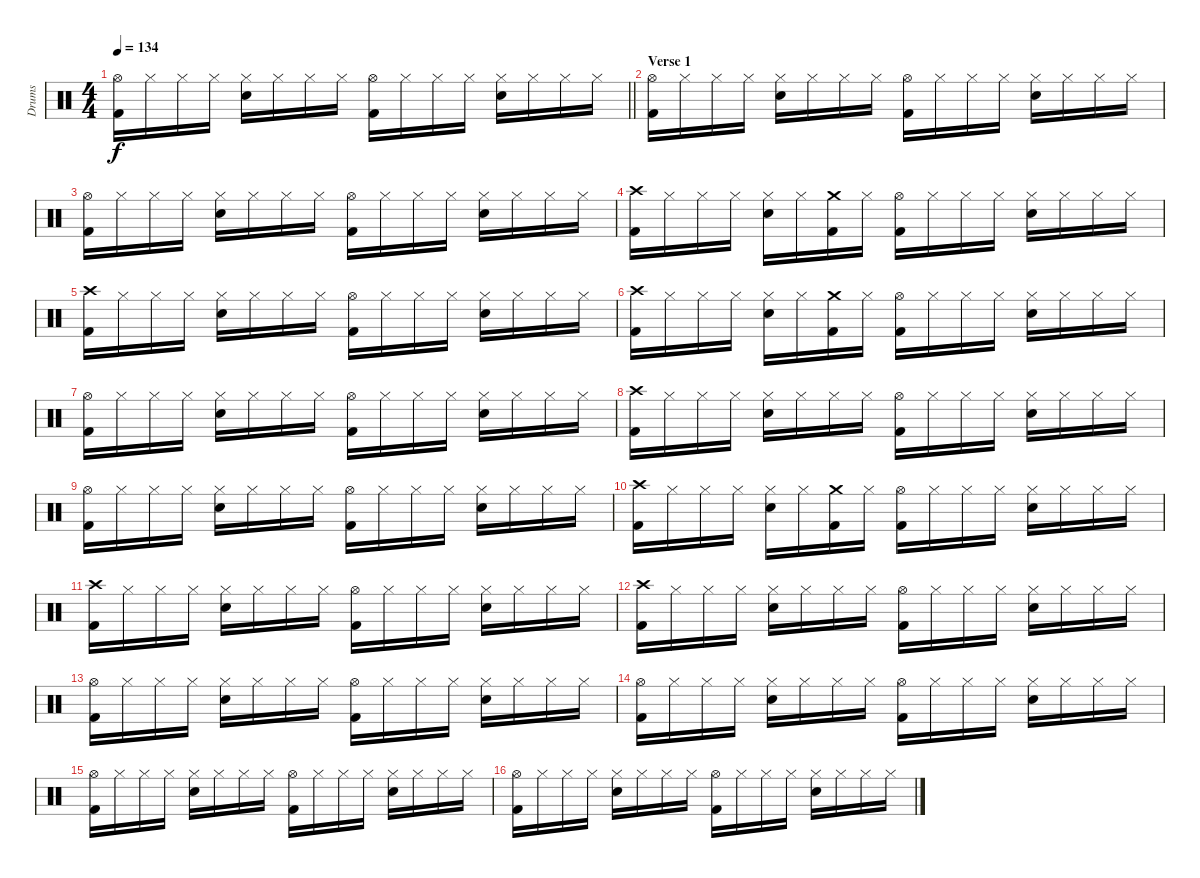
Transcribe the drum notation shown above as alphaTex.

\track ("Drums" "Drums") {instrument percussion}
\staff {score}
\articulation defaults
\ts (4 4)
\tempo 134
\clef neutral
\barLineRight lightlight
\ks c
("Hi-Hat (open)" "Kick (hit) 2").16{dy f} "Hi-Hat (closed)".16 "Hi-Hat (closed)".16 "Hi-Hat (closed)".16 ("Hi-Hat (closed)" "Snare (hit) 2").16 "Hi-Hat (closed)".16 "Hi-Hat (closed)".16 "Hi-Hat (closed)".16 ("Hi-Hat (open)" "Kick (hit) 2").16 "Hi-Hat (closed)".16 "Hi-Hat (closed)".16 "Hi-Hat (closed)".16 ("Hi-Hat (closed)" "Snare (hit) 2").16 "Hi-Hat (closed)".16 "Hi-Hat (closed)".16 "Hi-Hat (closed)".16 |
\section ("" "Verse 1")
("Hi-Hat (open)" "Kick (hit) 2").16 "Hi-Hat (closed)".16 "Hi-Hat (closed)".16 "Hi-Hat (closed)".16 ("Hi-Hat (closed)" "Snare (hit) 2").16 "Hi-Hat (closed)".16 "Hi-Hat (closed)".16 "Hi-Hat (closed)".16 ("Hi-Hat (open)" "Kick (hit) 2").16 "Hi-Hat (closed)".16 "Hi-Hat (closed)".16 "Hi-Hat (closed)".16 ("Hi-Hat (closed)" "Snare (hit) 2").16 "Hi-Hat (closed)".16 "Hi-Hat (closed)".16 "Hi-Hat (closed)".16 |
("Hi-Hat (open)" "Kick (hit) 2").16 "Hi-Hat (closed)".16 "Hi-Hat (closed)".16 "Hi-Hat (closed)".16 ("Hi-Hat (closed)" "Snare (hit) 2").16 "Hi-Hat (closed)".16 "Hi-Hat (closed)".16 "Hi-Hat (closed)".16 ("Hi-Hat (open)" "Kick (hit) 2").16 "Hi-Hat (closed)".16 "Hi-Hat (closed)".16 "Hi-Hat (closed)".16 ("Hi-Hat (closed)" "Snare (hit) 2").16 "Hi-Hat (closed)".16 "Hi-Hat (closed)".16 "Hi-Hat (closed)".16 |
("Crash high (hit)" "Kick (hit) 2").16 "Hi-Hat (closed)".16 "Hi-Hat (closed)".16 "Hi-Hat (closed)".16 ("Hi-Hat (closed)" "Snare (hit) 2").16 "Hi-Hat (closed)".16 ("Crash medium (hit)" "Kick (hit) 2").16 "Hi-Hat (closed)".16 ("Hi-Hat (open)" "Kick (hit) 2").16 "Hi-Hat (closed)".16 "Hi-Hat (closed)".16 "Hi-Hat (closed)".16 ("Hi-Hat (closed)" "Snare (hit) 2").16 "Hi-Hat (closed)".16 "Hi-Hat (closed)".16 "Hi-Hat (closed)".16 |
("Crash high (hit)" "Kick (hit) 2").16 "Hi-Hat (closed)".16 "Hi-Hat (closed)".16 "Hi-Hat (closed)".16 ("Hi-Hat (closed)" "Snare (hit) 2").16 "Hi-Hat (closed)".16 "Hi-Hat (closed)".16 "Hi-Hat (closed)".16 ("Hi-Hat (open)" "Kick (hit) 2").16 "Hi-Hat (closed)".16 "Hi-Hat (closed)".16 "Hi-Hat (closed)".16 ("Hi-Hat (closed)" "Snare (hit) 2").16 "Hi-Hat (closed)".16 "Hi-Hat (closed)".16 "Hi-Hat (closed)".16 |
("Crash high (hit)" "Kick (hit) 2").16 "Hi-Hat (closed)".16 "Hi-Hat (closed)".16 "Hi-Hat (closed)".16 ("Hi-Hat (closed)" "Snare (hit) 2").16 "Hi-Hat (closed)".16 ("Crash medium (hit)" "Kick (hit) 2").16 "Hi-Hat (closed)".16 ("Hi-Hat (open)" "Kick (hit) 2").16 "Hi-Hat (closed)".16 "Hi-Hat (closed)".16 "Hi-Hat (closed)".16 ("Hi-Hat (closed)" "Snare (hit) 2").16 "Hi-Hat (closed)".16 "Hi-Hat (closed)".16 "Hi-Hat (closed)".16 |
("Hi-Hat (open)" "Kick (hit) 2").16 "Hi-Hat (closed)".16 "Hi-Hat (closed)".16 "Hi-Hat (closed)".16 ("Hi-Hat (closed)" "Snare (hit) 2").16 "Hi-Hat (closed)".16 "Hi-Hat (closed)".16 "Hi-Hat (closed)".16 ("Hi-Hat (open)" "Kick (hit) 2").16 "Hi-Hat (closed)".16 "Hi-Hat (closed)".16 "Hi-Hat (closed)".16 ("Hi-Hat (closed)" "Snare (hit) 2").16 "Hi-Hat (closed)".16 "Hi-Hat (closed)".16 "Hi-Hat (closed)".16 |
("Crash high (hit)" "Kick (hit) 2").16 "Hi-Hat (closed)".16 "Hi-Hat (closed)".16 "Hi-Hat (closed)".16 ("Hi-Hat (closed)" "Snare (hit) 2").16 "Hi-Hat (closed)".16 "Hi-Hat (closed)".16 "Hi-Hat (closed)".16 ("Hi-Hat (open)" "Kick (hit) 2").16 "Hi-Hat (closed)".16 "Hi-Hat (closed)".16 "Hi-Hat (closed)".16 ("Hi-Hat (closed)" "Snare (hit) 2").16 "Hi-Hat (closed)".16 "Hi-Hat (closed)".16 "Hi-Hat (closed)".16 |
("Hi-Hat (open)" "Kick (hit) 2").16 "Hi-Hat (closed)".16 "Hi-Hat (closed)".16 "Hi-Hat (closed)".16 ("Hi-Hat (closed)" "Snare (hit) 2").16 "Hi-Hat (closed)".16 "Hi-Hat (closed)".16 "Hi-Hat (closed)".16 ("Hi-Hat (open)" "Kick (hit) 2").16 "Hi-Hat (closed)".16 "Hi-Hat (closed)".16 "Hi-Hat (closed)".16 ("Hi-Hat (closed)" "Snare (hit) 2").16 "Hi-Hat (closed)".16 "Hi-Hat (closed)".16 "Hi-Hat (closed)".16 |
("Crash high (hit)" "Kick (hit) 2").16 "Hi-Hat (closed)".16 "Hi-Hat (closed)".16 "Hi-Hat (closed)".16 ("Hi-Hat (closed)" "Snare (hit) 2").16 "Hi-Hat (closed)".16 ("Crash medium (hit)" "Kick (hit) 2").16 "Hi-Hat (closed)".16 ("Hi-Hat (open)" "Kick (hit) 2").16 "Hi-Hat (closed)".16 "Hi-Hat (closed)".16 "Hi-Hat (closed)".16 ("Hi-Hat (closed)" "Snare (hit) 2").16 "Hi-Hat (closed)".16 "Hi-Hat (closed)".16 "Hi-Hat (closed)".16 |
("Crash high (hit)" "Kick (hit) 2").16 "Hi-Hat (closed)".16 "Hi-Hat (closed)".16 "Hi-Hat (closed)".16 ("Hi-Hat (closed)" "Snare (hit) 2").16 "Hi-Hat (closed)".16 "Hi-Hat (closed)".16 "Hi-Hat (closed)".16 ("Hi-Hat (open)" "Kick (hit) 2").16 "Hi-Hat (closed)".16 "Hi-Hat (closed)".16 "Hi-Hat (closed)".16 ("Hi-Hat (closed)" "Snare (hit) 2").16 "Hi-Hat (closed)".16 "Hi-Hat (closed)".16 "Hi-Hat (closed)".16 |
("Crash high (hit)" "Kick (hit) 2").16 "Hi-Hat (closed)".16 "Hi-Hat (closed)".16 "Hi-Hat (closed)".16 ("Hi-Hat (closed)" "Snare (hit) 2").16 "Hi-Hat (closed)".16 "Hi-Hat (closed)".16 "Hi-Hat (closed)".16 ("Hi-Hat (open)" "Kick (hit) 2").16 "Hi-Hat (closed)".16 "Hi-Hat (closed)".16 "Hi-Hat (closed)".16 ("Hi-Hat (closed)" "Snare (hit) 2").16 "Hi-Hat (closed)".16 "Hi-Hat (closed)".16 "Hi-Hat (closed)".16 |
("Hi-Hat (open)" "Kick (hit) 2").16 "Hi-Hat (closed)".16 "Hi-Hat (closed)".16 "Hi-Hat (closed)".16 ("Hi-Hat (closed)" "Snare (hit) 2").16 "Hi-Hat (closed)".16 "Hi-Hat (closed)".16 "Hi-Hat (closed)".16 ("Hi-Hat (open)" "Kick (hit) 2").16 "Hi-Hat (closed)".16 "Hi-Hat (closed)".16 "Hi-Hat (closed)".16 ("Hi-Hat (closed)" "Snare (hit) 2").16 "Hi-Hat (closed)".16 "Hi-Hat (closed)".16 "Hi-Hat (closed)".16 |
("Hi-Hat (open)" "Kick (hit) 2").16 "Hi-Hat (closed)".16 "Hi-Hat (closed)".16 "Hi-Hat (closed)".16 ("Hi-Hat (closed)" "Snare (hit) 2").16 "Hi-Hat (closed)".16 "Hi-Hat (closed)".16 "Hi-Hat (closed)".16 ("Hi-Hat (open)" "Kick (hit) 2").16 "Hi-Hat (closed)".16 "Hi-Hat (closed)".16 "Hi-Hat (closed)".16 ("Hi-Hat (closed)" "Snare (hit) 2").16 "Hi-Hat (closed)".16 "Hi-Hat (closed)".16 "Hi-Hat (closed)".16 |
("Hi-Hat (open)" "Kick (hit) 2").16 "Hi-Hat (closed)".16 "Hi-Hat (closed)".16 "Hi-Hat (closed)".16 ("Hi-Hat (closed)" "Snare (hit) 2").16 "Hi-Hat (closed)".16 "Hi-Hat (closed)".16 "Hi-Hat (closed)".16 ("Hi-Hat (open)" "Kick (hit) 2").16 "Hi-Hat (closed)".16 "Hi-Hat (closed)".16 "Hi-Hat (closed)".16 ("Hi-Hat (closed)" "Snare (hit) 2").16 "Hi-Hat (closed)".16 "Hi-Hat (closed)".16 "Hi-Hat (closed)".16 |
("Hi-Hat (open)" "Kick (hit) 2").16 "Hi-Hat (closed)".16 "Hi-Hat (closed)".16 "Hi-Hat (closed)".16 ("Hi-Hat (closed)" "Snare (hit) 2").16 "Hi-Hat (closed)".16 "Hi-Hat (closed)".16 "Hi-Hat (closed)".16 ("Hi-Hat (open)" "Kick (hit) 2").16 "Hi-Hat (closed)".16 "Hi-Hat (closed)".16 "Hi-Hat (closed)".16 ("Hi-Hat (closed)" "Snare (hit) 2").16 "Hi-Hat (closed)".16 "Hi-Hat (closed)".16 "Hi-Hat (closed)".16
